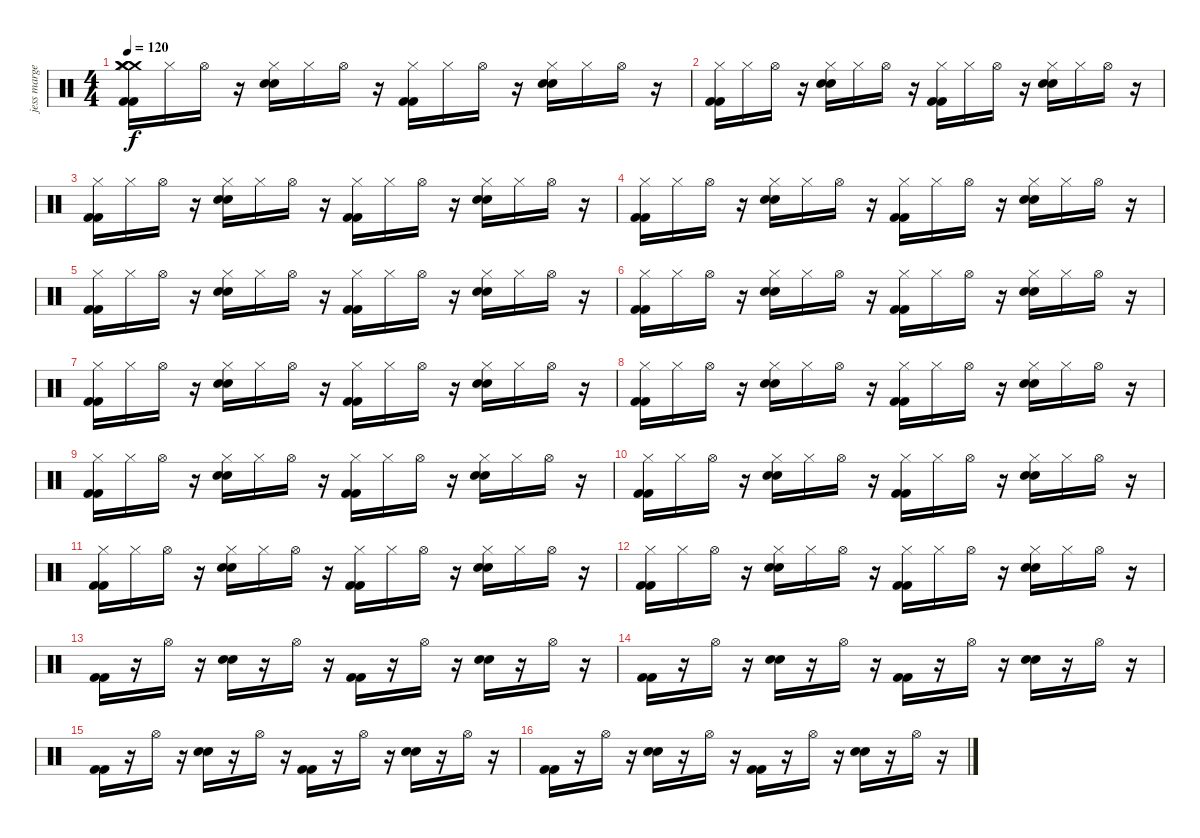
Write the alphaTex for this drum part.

\track ("jess margera" "jess marge") {instrument percussion}
\staff {score}
\articulation defaults
\ts (4 4)
\tempo 120
\clef neutral
\ks c
("Crash medium (hit)" "Crash medium (hit)" "Hi-Hat (closed)" "Crash medium (hit)" "Kick (hit) 2" "Kick (hit) 2").16{dy f} "Hi-Hat (closed)".16 "Hi-Hat (open)".16 r.16 ("Hi-Hat (closed)" "Electric Snare (hit)" "Electric Snare (hit)").16 "Hi-Hat (closed)".16 "Hi-Hat (open)".16 r.16 ("Hi-Hat (closed)" "Kick (hit) 2" "Kick (hit) 2").16 "Hi-Hat (closed)".16 "Hi-Hat (open)".16 r.16 ("Hi-Hat (closed)" "Electric Snare (hit)" "Electric Snare (hit)").16 "Hi-Hat (closed)".16 "Hi-Hat (open)".16 r.16 |
("Hi-Hat (closed)" "Kick (hit) 2" "Kick (hit) 2").16 "Hi-Hat (closed)".16 "Hi-Hat (open)".16 r.16 ("Hi-Hat (closed)" "Electric Snare (hit)" "Electric Snare (hit)").16 "Hi-Hat (closed)".16 "Hi-Hat (open)".16 r.16 ("Hi-Hat (closed)" "Kick (hit) 2" "Kick (hit) 2").16 "Hi-Hat (closed)".16 "Hi-Hat (open)".16 r.16 ("Hi-Hat (closed)" "Electric Snare (hit)" "Electric Snare (hit)").16 "Hi-Hat (closed)".16 "Hi-Hat (open)".16 r.16 |
("Hi-Hat (closed)" "Kick (hit) 2" "Kick (hit) 2").16 "Hi-Hat (closed)".16 "Hi-Hat (open)".16 r.16 ("Hi-Hat (closed)" "Electric Snare (hit)" "Electric Snare (hit)").16 "Hi-Hat (closed)".16 "Hi-Hat (open)".16 r.16 ("Hi-Hat (closed)" "Kick (hit) 2" "Kick (hit) 2").16 "Hi-Hat (closed)".16 "Hi-Hat (open)".16 r.16 ("Hi-Hat (closed)" "Electric Snare (hit)" "Electric Snare (hit)").16 "Hi-Hat (closed)".16 "Hi-Hat (open)".16 r.16 |
("Hi-Hat (closed)" "Kick (hit) 2" "Kick (hit) 2").16 "Hi-Hat (closed)".16 "Hi-Hat (open)".16 r.16 ("Hi-Hat (closed)" "Electric Snare (hit)" "Electric Snare (hit)").16 "Hi-Hat (closed)".16 "Hi-Hat (open)".16 r.16 ("Hi-Hat (closed)" "Kick (hit) 2" "Kick (hit) 2").16 "Hi-Hat (closed)".16 "Hi-Hat (open)".16 r.16 ("Hi-Hat (closed)" "Electric Snare (hit)" "Electric Snare (hit)").16 "Hi-Hat (closed)".16 "Hi-Hat (open)".16 r.16 |
("Hi-Hat (closed)" "Kick (hit) 2" "Kick (hit) 2").16 "Hi-Hat (closed)".16 "Hi-Hat (open)".16 r.16 ("Hi-Hat (closed)" "Electric Snare (hit)" "Electric Snare (hit)").16 "Hi-Hat (closed)".16 "Hi-Hat (open)".16 r.16 ("Hi-Hat (closed)" "Kick (hit) 2" "Kick (hit) 2").16 "Hi-Hat (closed)".16 "Hi-Hat (open)".16 r.16 ("Hi-Hat (closed)" "Electric Snare (hit)" "Electric Snare (hit)").16 "Hi-Hat (closed)".16 "Hi-Hat (open)".16 r.16 |
("Hi-Hat (closed)" "Kick (hit) 2" "Kick (hit) 2").16 "Hi-Hat (closed)".16 "Hi-Hat (open)".16 r.16 ("Hi-Hat (closed)" "Electric Snare (hit)" "Electric Snare (hit)").16 "Hi-Hat (closed)".16 "Hi-Hat (open)".16 r.16 ("Hi-Hat (closed)" "Kick (hit) 2" "Kick (hit) 2").16 "Hi-Hat (closed)".16 "Hi-Hat (open)".16 r.16 ("Hi-Hat (closed)" "Electric Snare (hit)" "Electric Snare (hit)").16 "Hi-Hat (closed)".16 "Hi-Hat (open)".16 r.16 |
("Hi-Hat (closed)" "Kick (hit) 2" "Kick (hit) 2").16 "Hi-Hat (closed)".16 "Hi-Hat (open)".16 r.16 ("Hi-Hat (closed)" "Electric Snare (hit)" "Electric Snare (hit)").16 "Hi-Hat (closed)".16 "Hi-Hat (open)".16 r.16 ("Hi-Hat (closed)" "Kick (hit) 2" "Kick (hit) 2").16 "Hi-Hat (closed)".16 "Hi-Hat (open)".16 r.16 ("Hi-Hat (closed)" "Electric Snare (hit)" "Electric Snare (hit)").16 "Hi-Hat (closed)".16 "Hi-Hat (open)".16 r.16 |
("Hi-Hat (closed)" "Kick (hit) 2" "Kick (hit) 2").16 "Hi-Hat (closed)".16 "Hi-Hat (open)".16 r.16 ("Hi-Hat (closed)" "Electric Snare (hit)" "Electric Snare (hit)").16 "Hi-Hat (closed)".16 "Hi-Hat (open)".16 r.16 ("Hi-Hat (closed)" "Kick (hit) 2" "Kick (hit) 2").16 "Hi-Hat (closed)".16 "Hi-Hat (open)".16 r.16 ("Hi-Hat (closed)" "Electric Snare (hit)" "Electric Snare (hit)").16 "Hi-Hat (closed)".16 "Hi-Hat (open)".16 r.16 |
("Hi-Hat (closed)" "Kick (hit) 2" "Kick (hit) 2").16 "Hi-Hat (closed)".16 "Hi-Hat (open)".16 r.16 ("Hi-Hat (closed)" "Electric Snare (hit)" "Electric Snare (hit)").16 "Hi-Hat (closed)".16 "Hi-Hat (open)".16 r.16 ("Hi-Hat (closed)" "Kick (hit) 2" "Kick (hit) 2").16 "Hi-Hat (closed)".16 "Hi-Hat (open)".16 r.16 ("Hi-Hat (closed)" "Electric Snare (hit)" "Electric Snare (hit)").16 "Hi-Hat (closed)".16 "Hi-Hat (open)".16 r.16 |
("Hi-Hat (closed)" "Kick (hit) 2" "Kick (hit) 2").16 "Hi-Hat (closed)".16 "Hi-Hat (open)".16 r.16 ("Hi-Hat (closed)" "Electric Snare (hit)" "Electric Snare (hit)").16 "Hi-Hat (closed)".16 "Hi-Hat (open)".16 r.16 ("Hi-Hat (closed)" "Kick (hit) 2" "Kick (hit) 2").16 "Hi-Hat (closed)".16 "Hi-Hat (open)".16 r.16 ("Hi-Hat (closed)" "Electric Snare (hit)" "Electric Snare (hit)").16 "Hi-Hat (closed)".16 "Hi-Hat (open)".16 r.16 |
("Hi-Hat (closed)" "Kick (hit) 2" "Kick (hit) 2").16 "Hi-Hat (closed)".16 "Hi-Hat (open)".16 r.16 ("Hi-Hat (closed)" "Electric Snare (hit)" "Electric Snare (hit)").16 "Hi-Hat (closed)".16 "Hi-Hat (open)".16 r.16 ("Hi-Hat (closed)" "Kick (hit) 2" "Kick (hit) 2").16 "Hi-Hat (closed)".16 "Hi-Hat (open)".16 r.16 ("Hi-Hat (closed)" "Electric Snare (hit)" "Electric Snare (hit)").16 "Hi-Hat (closed)".16 "Hi-Hat (open)".16 r.16 |
("Hi-Hat (closed)" "Kick (hit) 2" "Kick (hit) 2").16 "Hi-Hat (closed)".16 "Hi-Hat (open)".16 r.16 ("Hi-Hat (closed)" "Electric Snare (hit)" "Electric Snare (hit)").16 "Hi-Hat (closed)".16 "Hi-Hat (open)".16 r.16 ("Hi-Hat (closed)" "Kick (hit) 2" "Kick (hit) 2").16 "Hi-Hat (closed)".16 "Hi-Hat (open)".16 r.16 ("Hi-Hat (closed)" "Electric Snare (hit)" "Electric Snare (hit)").16 "Hi-Hat (closed)".16 "Hi-Hat (open)".16 r.16 |
("Kick (hit) 2" "Kick (hit) 2").16 r.16 "Hi-Hat (open)".16 r.16 ("Electric Snare (hit)" "Electric Snare (hit)").16 r.16 "Hi-Hat (open)".16 r.16 ("Kick (hit) 2" "Kick (hit) 2").16 r.16 "Hi-Hat (open)".16 r.16 ("Electric Snare (hit)" "Electric Snare (hit)").16 r.16 "Hi-Hat (open)".16 r.16 |
("Kick (hit) 2" "Kick (hit) 2").16 r.16 "Hi-Hat (open)".16 r.16 ("Electric Snare (hit)" "Electric Snare (hit)").16 r.16 "Hi-Hat (open)".16 r.16 ("Kick (hit) 2" "Kick (hit) 2").16 r.16 "Hi-Hat (open)".16 r.16 ("Electric Snare (hit)" "Electric Snare (hit)").16 r.16 "Hi-Hat (open)".16 r.16 |
("Kick (hit) 2" "Kick (hit) 2").16 r.16 "Hi-Hat (open)".16 r.16 ("Electric Snare (hit)" "Electric Snare (hit)").16 r.16 "Hi-Hat (open)".16 r.16 ("Kick (hit) 2" "Kick (hit) 2").16 r.16 "Hi-Hat (open)".16 r.16 ("Electric Snare (hit)" "Electric Snare (hit)").16 r.16 "Hi-Hat (open)".16 r.16 |
("Kick (hit) 2" "Kick (hit) 2").16 r.16 "Hi-Hat (open)".16 r.16 ("Electric Snare (hit)" "Electric Snare (hit)").16 r.16 "Hi-Hat (open)".16 r.16 ("Kick (hit) 2" "Kick (hit) 2").16 r.16 "Hi-Hat (open)".16 r.16 ("Electric Snare (hit)" "Electric Snare (hit)").16 r.16 "Hi-Hat (open)".16 r.16
